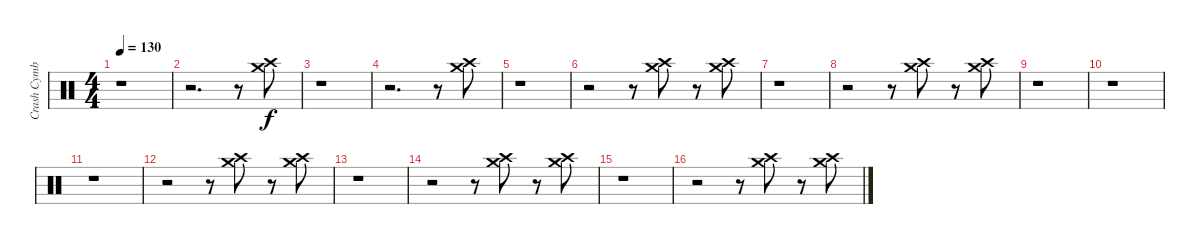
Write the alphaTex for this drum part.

\track ("Crash Cymbal" "Crash Cymb") {instrument percussion}
\staff {score}
\articulation defaults
\ts (4 4)
\tempo 130
\clef neutral
\ks c
r.1{dy f} |
r.2{d} r.8 ("Crash high (hit)" "Crash medium (hit)").8 |
r.1 |
r.2{d} r.8 ("Crash high (hit)" "Crash medium (hit)").8 |
r.1 |
r.2 r.8 ("Crash high (hit)" "Crash medium (hit)").8 r.8 ("Crash high (hit)" "Crash medium (hit)").8 |
r.1 |
r.2 r.8 ("Crash high (hit)" "Crash medium (hit)").8 r.8 ("Crash high (hit)" "Crash medium (hit)").8 |
r.1 |
r.1 |
r.1 |
r.2 r.8 ("Crash high (hit)" "Crash medium (hit)").8 r.8 ("Crash high (hit)" "Crash medium (hit)").8 |
r.1 |
r.2 r.8 ("Crash high (hit)" "Crash medium (hit)").8 r.8 ("Crash high (hit)" "Crash medium (hit)").8 |
r.1 |
r.2 r.8 ("Crash high (hit)" "Crash medium (hit)").8 r.8 ("Crash high (hit)" "Crash medium (hit)").8
